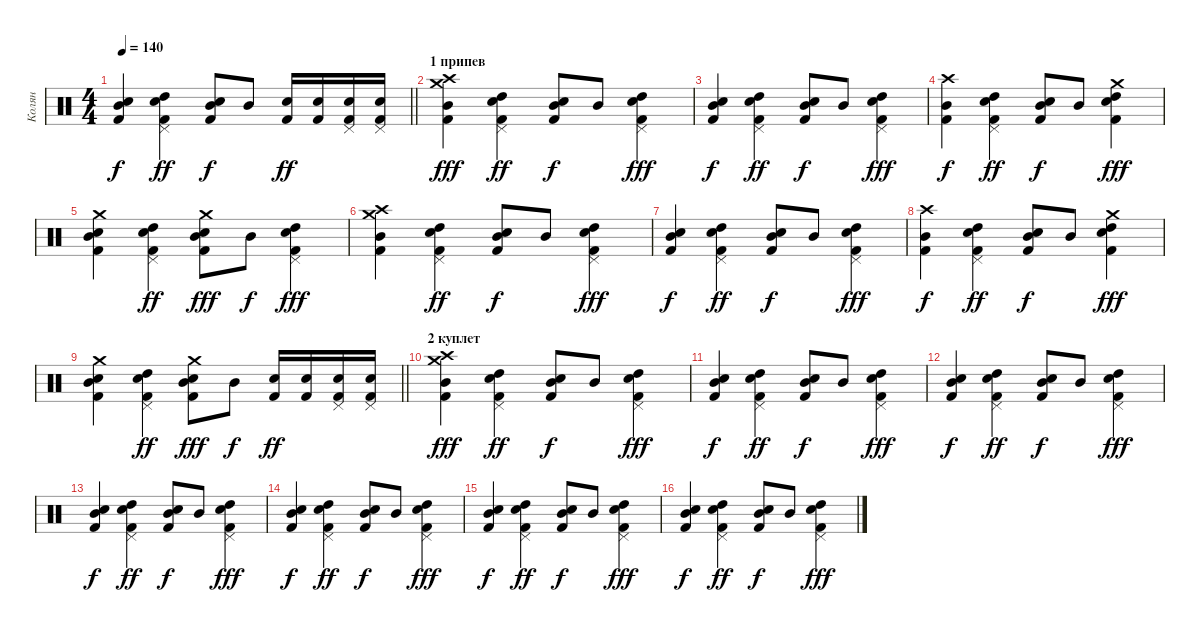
\track ("Колян" "Колян") {instrument percussion}
\staff {score}
\articulation defaults
\ts (4 4)
\tempo 140
\clef neutral
\barLineRight lightlight
\ks c
("Mid Tom (hit)" "Snare (hit) 2" "Kick (hit) 2").4{dy f} ("Pedal Hi-Hat (hit)" "High Tom (hit)" "Snare (hit) 2" "Kick (hit) 2").4{dy ff} ("Mid Tom (hit)" "Snare (hit) 2" "Kick (hit) 2").8{dy f} "Mid Tom (hit)".8 ("Snare (hit) 2" "Kick (hit) 2").16{dy ff} ("Snare (hit) 2" "Kick (hit) 2").16 ("Pedal Hi-Hat (hit)" "Snare (hit) 2" "Kick (hit) 2").16 ("Pedal Hi-Hat (hit)" "Snare (hit) 2" "Kick (hit) 2").16 |
\section ("" "1 припев")
("Crash medium (hit)" "Mid Tom (hit)" "Crash high (hit)" "Kick (hit) 2").4{dy fff} ("Pedal Hi-Hat (hit)" "High Tom (hit)" "Snare (hit) 2" "Kick (hit) 2").4{dy ff} ("Mid Tom (hit)" "Snare (hit) 2" "Kick (hit) 2").8{dy f} "Mid Tom (hit)".8 ("Pedal Hi-Hat (hit)" "High Tom (hit)" "Snare (hit) 2" "Kick (hit) 2").4{dy fff} |
("Mid Tom (hit)" "Snare (hit) 2" "Kick (hit) 2").4{dy f} ("Pedal Hi-Hat (hit)" "High Tom (hit)" "Snare (hit) 2" "Kick (hit) 2").4{dy ff} ("Mid Tom (hit)" "Snare (hit) 2" "Kick (hit) 2").8{dy f} "Mid Tom (hit)".8 ("Pedal Hi-Hat (hit)" "High Tom (hit)" "Snare (hit) 2" "Kick (hit) 2").4{dy fff} |
("Mid Tom (hit)" "Crash high (hit)" "Kick (hit) 2").4{dy f} ("Pedal Hi-Hat (hit)" "High Tom (hit)" "Snare (hit) 2" "Kick (hit) 2").4{dy ff} ("Mid Tom (hit)" "Snare (hit) 2" "Kick (hit) 2").8{dy f} "Mid Tom (hit)".8 ("Crash medium (hit)" "High Tom (hit)" "Snare (hit) 2" "Kick (hit) 2").4{dy fff} |
("Crash medium (hit)" "Mid Tom (hit)" "Snare (hit) 2" "Kick (hit) 2").4 ("Pedal Hi-Hat (hit)" "High Tom (hit)" "Snare (hit) 2" "Kick (hit) 2").4{dy ff} ("Crash medium (hit)" "Mid Tom (hit)" "Snare (hit) 2" "Kick (hit) 2").8{dy fff} "Mid Tom (hit)".8{dy f} ("Pedal Hi-Hat (hit)" "High Tom (hit)" "Snare (hit) 2" "Kick (hit) 2").4{dy fff} |
("Crash medium (hit)" "Mid Tom (hit)" "Crash high (hit)" "Kick (hit) 2").4 ("Pedal Hi-Hat (hit)" "High Tom (hit)" "Snare (hit) 2" "Kick (hit) 2").4{dy ff} ("Mid Tom (hit)" "Snare (hit) 2" "Kick (hit) 2").8{dy f} "Mid Tom (hit)".8 ("Pedal Hi-Hat (hit)" "High Tom (hit)" "Snare (hit) 2" "Kick (hit) 2").4{dy fff} |
("Mid Tom (hit)" "Snare (hit) 2" "Kick (hit) 2").4{dy f} ("Pedal Hi-Hat (hit)" "High Tom (hit)" "Snare (hit) 2" "Kick (hit) 2").4{dy ff} ("Mid Tom (hit)" "Snare (hit) 2" "Kick (hit) 2").8{dy f} "Mid Tom (hit)".8 ("Pedal Hi-Hat (hit)" "High Tom (hit)" "Snare (hit) 2" "Kick (hit) 2").4{dy fff} |
("Mid Tom (hit)" "Crash high (hit)" "Kick (hit) 2").4{dy f} ("Pedal Hi-Hat (hit)" "High Tom (hit)" "Snare (hit) 2" "Kick (hit) 2").4{dy ff} ("Mid Tom (hit)" "Snare (hit) 2" "Kick (hit) 2").8{dy f} "Mid Tom (hit)".8 ("Crash medium (hit)" "High Tom (hit)" "Snare (hit) 2" "Kick (hit) 2").4{dy fff} |
\barLineRight lightlight
("Crash medium (hit)" "Mid Tom (hit)" "Snare (hit) 2" "Kick (hit) 2").4 ("Pedal Hi-Hat (hit)" "High Tom (hit)" "Snare (hit) 2" "Kick (hit) 2").4{dy ff} ("Crash medium (hit)" "Mid Tom (hit)" "Snare (hit) 2" "Kick (hit) 2").8{dy fff} "Mid Tom (hit)".8{dy f} ("Snare (hit) 2" "Kick (hit) 2").16{dy ff} ("Snare (hit) 2" "Kick (hit) 2").16 ("Pedal Hi-Hat (hit)" "Snare (hit) 2" "Kick (hit) 2").16 ("Pedal Hi-Hat (hit)" "Snare (hit) 2" "Kick (hit) 2").16 |
\section ("" "2 куплет")
("Crash medium (hit)" "Mid Tom (hit)" "Crash high (hit)" "Kick (hit) 2").4{dy fff} ("Pedal Hi-Hat (hit)" "High Tom (hit)" "Snare (hit) 2" "Kick (hit) 2").4{dy ff} ("Mid Tom (hit)" "Snare (hit) 2" "Kick (hit) 2").8{dy f} "Mid Tom (hit)".8 ("Pedal Hi-Hat (hit)" "High Tom (hit)" "Snare (hit) 2" "Kick (hit) 2").4{dy fff} |
("Mid Tom (hit)" "Snare (hit) 2" "Kick (hit) 2").4{dy f} ("Pedal Hi-Hat (hit)" "High Tom (hit)" "Snare (hit) 2" "Kick (hit) 2").4{dy ff} ("Mid Tom (hit)" "Snare (hit) 2" "Kick (hit) 2").8{dy f} "Mid Tom (hit)".8 ("Pedal Hi-Hat (hit)" "High Tom (hit)" "Snare (hit) 2" "Kick (hit) 2").4{dy fff} |
("Mid Tom (hit)" "Snare (hit) 2" "Kick (hit) 2").4{dy f} ("Pedal Hi-Hat (hit)" "High Tom (hit)" "Snare (hit) 2" "Kick (hit) 2").4{dy ff} ("Mid Tom (hit)" "Snare (hit) 2" "Kick (hit) 2").8{dy f} "Mid Tom (hit)".8 ("Pedal Hi-Hat (hit)" "High Tom (hit)" "Snare (hit) 2" "Kick (hit) 2").4{dy fff} |
("Mid Tom (hit)" "Snare (hit) 2" "Kick (hit) 2").4{dy f} ("Pedal Hi-Hat (hit)" "High Tom (hit)" "Snare (hit) 2" "Kick (hit) 2").4{dy ff} ("Mid Tom (hit)" "Snare (hit) 2" "Kick (hit) 2").8{dy f} "Mid Tom (hit)".8 ("Pedal Hi-Hat (hit)" "High Tom (hit)" "Snare (hit) 2" "Kick (hit) 2").4{dy fff} |
("Mid Tom (hit)" "Snare (hit) 2" "Kick (hit) 2").4{dy f} ("Pedal Hi-Hat (hit)" "High Tom (hit)" "Snare (hit) 2" "Kick (hit) 2").4{dy ff} ("Mid Tom (hit)" "Snare (hit) 2" "Kick (hit) 2").8{dy f} "Mid Tom (hit)".8 ("Pedal Hi-Hat (hit)" "High Tom (hit)" "Snare (hit) 2" "Kick (hit) 2").4{dy fff} |
("Mid Tom (hit)" "Snare (hit) 2" "Kick (hit) 2").4{dy f} ("Pedal Hi-Hat (hit)" "High Tom (hit)" "Snare (hit) 2" "Kick (hit) 2").4{dy ff} ("Mid Tom (hit)" "Snare (hit) 2" "Kick (hit) 2").8{dy f} "Mid Tom (hit)".8 ("Pedal Hi-Hat (hit)" "High Tom (hit)" "Snare (hit) 2" "Kick (hit) 2").4{dy fff} |
("Mid Tom (hit)" "Snare (hit) 2" "Kick (hit) 2").4{dy f} ("Pedal Hi-Hat (hit)" "High Tom (hit)" "Snare (hit) 2" "Kick (hit) 2").4{dy ff} ("Mid Tom (hit)" "Snare (hit) 2" "Kick (hit) 2").8{dy f} "Mid Tom (hit)".8 ("Pedal Hi-Hat (hit)" "High Tom (hit)" "Snare (hit) 2" "Kick (hit) 2").4{dy fff}
